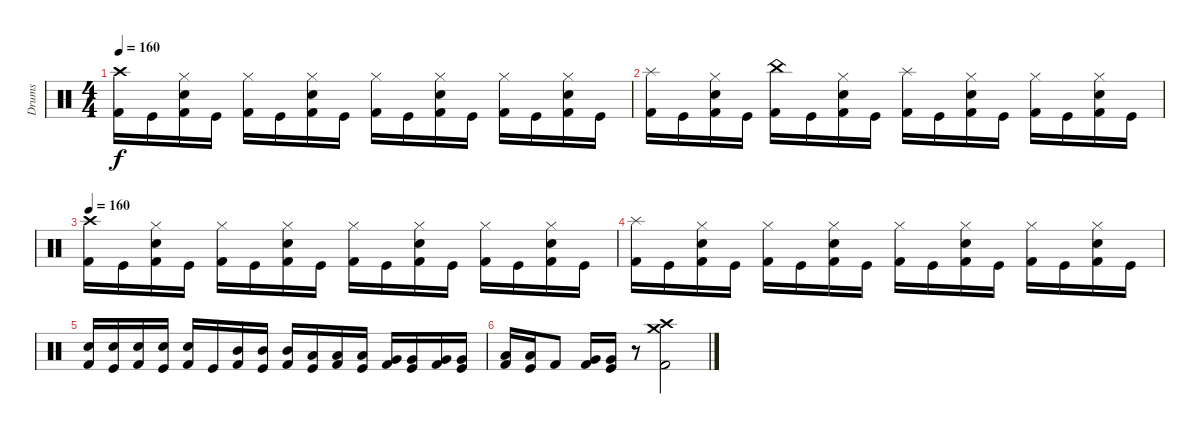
\track ("Drums" "Drums") {instrument percussion}
\staff {score}
\articulation defaults
\ts (4 4)
\tempo 160
\clef neutral
\ks c
("Crash high (hit)" "Kick (hit) 2").16{dy f} "Kick (hit)".16 ("Hi-Hat (closed)" "Snare (hit) 2" "Kick (hit) 2").16 "Kick (hit)".16 ("Hi-Hat (closed)" "Kick (hit) 2").16 "Kick (hit)".16 ("Hi-Hat (closed)" "Snare (hit) 2" "Kick (hit) 2").16 "Kick (hit)".16 ("Hi-Hat (closed)" "Kick (hit) 2").16 "Kick (hit)".16 ("Hi-Hat (closed)" "Snare (hit) 2" "Kick (hit) 2").16 "Kick (hit)".16 ("Hi-Hat (closed)" "Kick (hit) 2").16 "Kick (hit)".16 ("Hi-Hat (closed)" "Snare (hit) 2" "Kick (hit) 2").16 "Kick (hit)".16 |
("Splash (hit)" "Kick (hit) 2").16 "Kick (hit)".16 ("Hi-Hat (closed)" "Snare (hit) 2" "Kick (hit) 2").16 "Kick (hit)".16 ("China (hit)" "Kick (hit) 2").16 "Kick (hit)".16 ("Hi-Hat (closed)" "Snare (hit) 2" "Kick (hit) 2").16 "Kick (hit)".16 ("Splash (hit)" "Kick (hit) 2").16 "Kick (hit)".16 ("Hi-Hat (closed)" "Snare (hit) 2" "Kick (hit) 2").16 "Kick (hit)".16 ("Hi-Hat (closed)" "Kick (hit) 2").16 "Kick (hit)".16 ("Hi-Hat (closed)" "Snare (hit) 2" "Kick (hit) 2").16 "Kick (hit)".16 |
\tempo 160
("Crash high (hit)" "Kick (hit) 2").16 "Kick (hit)".16 ("Hi-Hat (closed)" "Snare (hit) 2" "Kick (hit) 2").16 "Kick (hit)".16 ("Hi-Hat (closed)" "Kick (hit) 2").16 "Kick (hit)".16 ("Hi-Hat (closed)" "Snare (hit) 2" "Kick (hit) 2").16 "Kick (hit)".16 ("Hi-Hat (closed)" "Kick (hit) 2").16 "Kick (hit)".16 ("Hi-Hat (closed)" "Snare (hit) 2" "Kick (hit) 2").16 "Kick (hit)".16 ("Hi-Hat (closed)" "Kick (hit) 2").16 "Kick (hit)".16 ("Hi-Hat (closed)" "Snare (hit) 2" "Kick (hit) 2").16 "Kick (hit)".16 |
("Splash (hit)" "Kick (hit) 2").16 "Kick (hit)".16 ("Hi-Hat (closed)" "Snare (hit) 2" "Kick (hit) 2").16 "Kick (hit)".16 ("Hi-Hat (closed)" "Kick (hit) 2").16 "Kick (hit)".16 ("Hi-Hat (closed)" "Snare (hit) 2" "Kick (hit) 2").16 "Kick (hit)".16 ("Hi-Hat (closed)" "Kick (hit) 2").16 "Kick (hit)".16 ("Hi-Hat (closed)" "Snare (hit) 2" "Kick (hit) 2").16 "Kick (hit)".16 ("Hi-Hat (closed)" "Kick (hit) 2").16 "Kick (hit)".16 ("Hi-Hat (closed)" "Snare (hit) 2" "Kick (hit) 2").16 "Kick (hit)".16 |
("Snare (hit) 2" "Kick (hit) 2").16 ("Snare (hit) 2" "Kick (hit)").16 ("Snare (hit) 2" "Kick (hit) 2").16 ("Snare (hit) 2" "Kick (hit)").16 ("Snare (hit) 2" "Kick (hit) 2").16 "Kick (hit)".16 ("Mid Tom (hit)" "Kick (hit) 2").16 ("Mid Tom (hit)" "Kick (hit)").16 ("Mid Tom (hit)" "Kick (hit) 2").16 ("Low Tom (hit)" "Kick (hit)").16 ("Low Tom (hit)" "Kick (hit) 2").16 ("Low Tom (hit)" "Kick (hit)").16 ("Very Low Tom (hit)" "Kick (hit) 2").16 ("Very Low Tom (hit)" "Kick (hit)").16 ("Very Low Tom (hit)" "Kick (hit) 2").16 ("Very Low Tom (hit)" "Kick (hit)").16 |
("Low Tom (hit)" "Kick (hit) 2").16 ("Low Tom (hit)" "Kick (hit)").16 "Kick (hit) 2".8 ("Very Low Tom (hit)" "Kick (hit) 2").16 ("Very Low Tom (hit)" "Kick (hit)").16 r.8 ("Crash high (hit)" "Crash medium (hit)" "Kick (hit) 2").2
